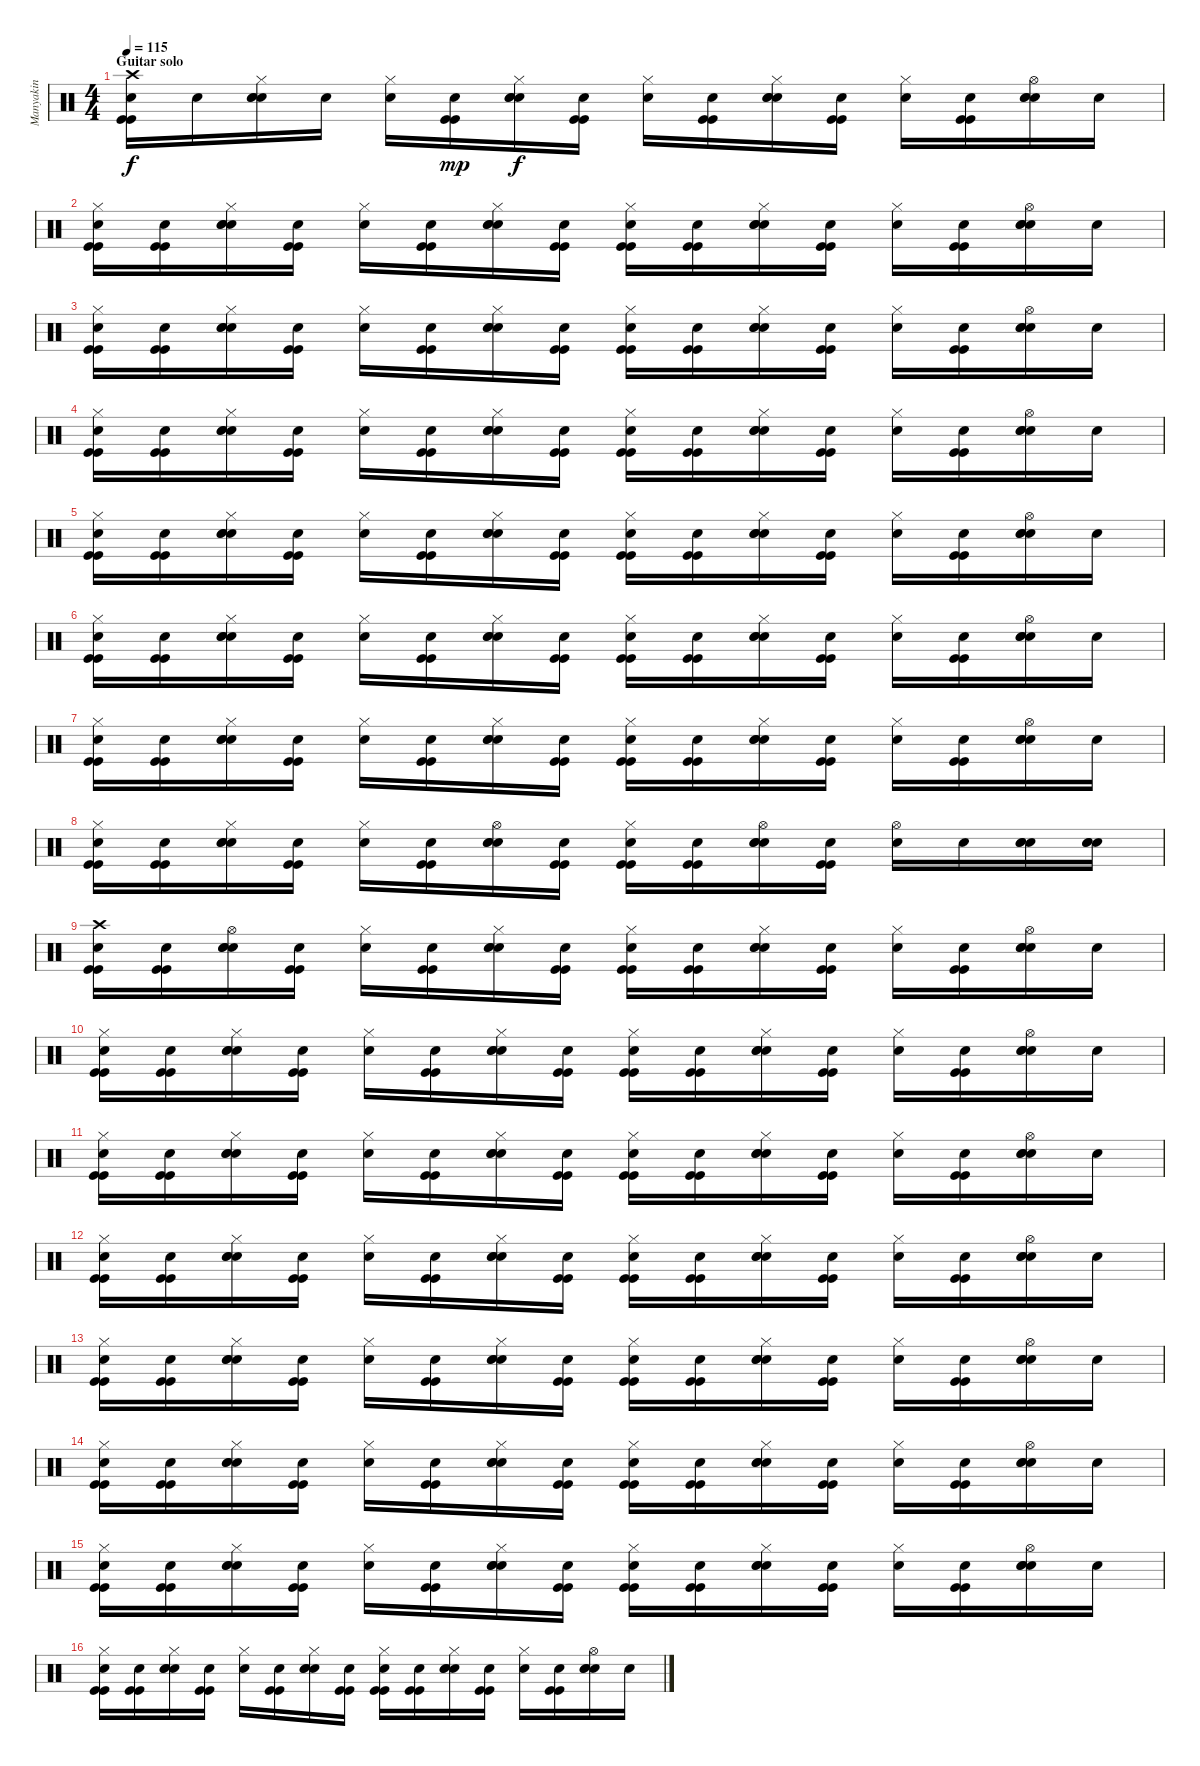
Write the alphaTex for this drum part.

\track ("Manyakin" "Manyakin") {instrument percussion}
\staff {score}
\articulation defaults
\ts (4 4)
\section ("" "Guitar solo")
\tempo 115
\clef neutral
\ks c
("Crash high (hit)" "Kick (hit)" "Kick (hit)" "Snare (hit)"{x}).16{dy f} "Snare (hit)"{x}.16 ("Hi-Hat (closed)" "Electric Snare (hit)" "Electric Snare (hit)" "Snare (hit)"{x}).16 "Snare (hit)"{x}.16 ("Hi-Hat (closed)" "Snare (hit)"{x}).16 ("Kick (hit)" "Kick (hit)" "Snare (hit)"{x}).16{dy mp} ("Hi-Hat (closed)" "Electric Snare (hit)" "Electric Snare (hit)" "Snare (hit)"{x}).16{dy f} ("Kick (hit)" "Kick (hit)" "Snare (hit)"{x}).16 ("Hi-Hat (closed)" "Snare (hit)"{x}).16 ("Kick (hit)" "Kick (hit)" "Snare (hit)"{x}).16 ("Hi-Hat (closed)" "Electric Snare (hit)" "Electric Snare (hit)" "Snare (hit)"{x}).16 ("Kick (hit)" "Kick (hit)" "Snare (hit)"{x}).16 ("Hi-Hat (closed)" "Snare (hit)"{x}).16 ("Kick (hit)" "Kick (hit)" "Snare (hit)"{x}).16 ("Hi-Hat (open)" "Electric Snare (hit)" "Electric Snare (hit)" "Snare (hit)"{x}).16 "Snare (hit)"{x}.16 |
("Hi-Hat (closed)" "Kick (hit)" "Kick (hit)" "Snare (hit)"{x}).16 ("Kick (hit)" "Kick (hit)" "Snare (hit)"{x}).16 ("Hi-Hat (closed)" "Electric Snare (hit)" "Electric Snare (hit)" "Snare (hit)"{x}).16 ("Kick (hit)" "Kick (hit)" "Snare (hit)"{x}).16 ("Hi-Hat (closed)" "Snare (hit)"{x}).16 ("Kick (hit)" "Kick (hit)" "Snare (hit)"{x}).16 ("Hi-Hat (closed)" "Electric Snare (hit)" "Electric Snare (hit)" "Snare (hit)"{x}).16 ("Kick (hit)" "Kick (hit)" "Snare (hit)"{x}).16 ("Hi-Hat (closed)" "Kick (hit)" "Kick (hit)" "Snare (hit)"{x}).16 ("Kick (hit)" "Kick (hit)" "Snare (hit)"{x}).16 ("Hi-Hat (closed)" "Electric Snare (hit)" "Electric Snare (hit)" "Snare (hit)"{x}).16 ("Kick (hit)" "Kick (hit)" "Snare (hit)"{x}).16 ("Hi-Hat (closed)" "Snare (hit)"{x}).16 ("Kick (hit)" "Kick (hit)" "Snare (hit)"{x}).16 ("Hi-Hat (open)" "Electric Snare (hit)" "Electric Snare (hit)" "Snare (hit)"{x}).16 "Snare (hit)"{x}.16 |
("Hi-Hat (closed)" "Kick (hit)" "Kick (hit)" "Snare (hit)"{x}).16 ("Kick (hit)" "Kick (hit)" "Snare (hit)"{x}).16 ("Hi-Hat (closed)" "Electric Snare (hit)" "Electric Snare (hit)" "Snare (hit)"{x}).16 ("Kick (hit)" "Kick (hit)" "Snare (hit)"{x}).16 ("Hi-Hat (closed)" "Snare (hit)"{x}).16 ("Kick (hit)" "Kick (hit)" "Snare (hit)"{x}).16 ("Hi-Hat (closed)" "Electric Snare (hit)" "Electric Snare (hit)" "Snare (hit)"{x}).16 ("Kick (hit)" "Kick (hit)" "Snare (hit)"{x}).16 ("Hi-Hat (closed)" "Kick (hit)" "Kick (hit)" "Snare (hit)"{x}).16 ("Kick (hit)" "Kick (hit)" "Snare (hit)"{x}).16 ("Hi-Hat (closed)" "Electric Snare (hit)" "Electric Snare (hit)" "Snare (hit)"{x}).16 ("Kick (hit)" "Kick (hit)" "Snare (hit)"{x}).16 ("Hi-Hat (closed)" "Snare (hit)"{x}).16 ("Kick (hit)" "Kick (hit)" "Snare (hit)"{x}).16 ("Hi-Hat (open)" "Electric Snare (hit)" "Electric Snare (hit)" "Snare (hit)"{x}).16 "Snare (hit)"{x}.16 |
("Hi-Hat (closed)" "Kick (hit)" "Kick (hit)" "Snare (hit)"{x}).16 ("Kick (hit)" "Kick (hit)" "Snare (hit)"{x}).16 ("Hi-Hat (closed)" "Electric Snare (hit)" "Electric Snare (hit)" "Snare (hit)"{x}).16 ("Kick (hit)" "Kick (hit)" "Snare (hit)"{x}).16 ("Hi-Hat (closed)" "Snare (hit)"{x}).16 ("Kick (hit)" "Kick (hit)" "Snare (hit)"{x}).16 ("Hi-Hat (closed)" "Electric Snare (hit)" "Electric Snare (hit)" "Snare (hit)"{x}).16 ("Kick (hit)" "Kick (hit)" "Snare (hit)"{x}).16 ("Hi-Hat (closed)" "Kick (hit)" "Kick (hit)" "Snare (hit)"{x}).16 ("Kick (hit)" "Kick (hit)" "Snare (hit)"{x}).16 ("Hi-Hat (closed)" "Electric Snare (hit)" "Electric Snare (hit)" "Snare (hit)"{x}).16 ("Kick (hit)" "Kick (hit)" "Snare (hit)"{x}).16 ("Hi-Hat (closed)" "Snare (hit)"{x}).16 ("Kick (hit)" "Kick (hit)" "Snare (hit)"{x}).16 ("Hi-Hat (open)" "Electric Snare (hit)" "Electric Snare (hit)" "Snare (hit)"{x}).16 "Snare (hit)"{x}.16 |
("Hi-Hat (closed)" "Kick (hit)" "Kick (hit)" "Snare (hit)"{x}).16 ("Kick (hit)" "Kick (hit)" "Snare (hit)"{x}).16 ("Hi-Hat (closed)" "Electric Snare (hit)" "Electric Snare (hit)" "Snare (hit)"{x}).16 ("Kick (hit)" "Kick (hit)" "Snare (hit)"{x}).16 ("Hi-Hat (closed)" "Snare (hit)"{x}).16 ("Kick (hit)" "Kick (hit)" "Snare (hit)"{x}).16 ("Hi-Hat (closed)" "Electric Snare (hit)" "Electric Snare (hit)" "Snare (hit)"{x}).16 ("Kick (hit)" "Kick (hit)" "Snare (hit)"{x}).16 ("Hi-Hat (closed)" "Kick (hit)" "Kick (hit)" "Snare (hit)"{x}).16 ("Kick (hit)" "Kick (hit)" "Snare (hit)"{x}).16 ("Hi-Hat (closed)" "Electric Snare (hit)" "Electric Snare (hit)" "Snare (hit)"{x}).16 ("Kick (hit)" "Kick (hit)" "Snare (hit)"{x}).16 ("Hi-Hat (closed)" "Snare (hit)"{x}).16 ("Kick (hit)" "Kick (hit)" "Snare (hit)"{x}).16 ("Hi-Hat (open)" "Electric Snare (hit)" "Electric Snare (hit)" "Snare (hit)"{x}).16 "Snare (hit)"{x}.16 |
("Hi-Hat (closed)" "Kick (hit)" "Kick (hit)" "Snare (hit)"{x}).16 ("Kick (hit)" "Kick (hit)" "Snare (hit)"{x}).16 ("Hi-Hat (closed)" "Electric Snare (hit)" "Electric Snare (hit)" "Snare (hit)"{x}).16 ("Kick (hit)" "Kick (hit)" "Snare (hit)"{x}).16 ("Hi-Hat (closed)" "Snare (hit)"{x}).16 ("Kick (hit)" "Kick (hit)" "Snare (hit)"{x}).16 ("Hi-Hat (closed)" "Electric Snare (hit)" "Electric Snare (hit)" "Snare (hit)"{x}).16 ("Kick (hit)" "Kick (hit)" "Snare (hit)"{x}).16 ("Hi-Hat (closed)" "Kick (hit)" "Kick (hit)" "Snare (hit)"{x}).16 ("Kick (hit)" "Kick (hit)" "Snare (hit)"{x}).16 ("Hi-Hat (closed)" "Electric Snare (hit)" "Electric Snare (hit)" "Snare (hit)"{x}).16 ("Kick (hit)" "Kick (hit)" "Snare (hit)"{x}).16 ("Hi-Hat (closed)" "Snare (hit)"{x}).16 ("Kick (hit)" "Kick (hit)" "Snare (hit)"{x}).16 ("Hi-Hat (open)" "Electric Snare (hit)" "Electric Snare (hit)" "Snare (hit)"{x}).16 "Snare (hit)"{x}.16 |
("Hi-Hat (closed)" "Kick (hit)" "Kick (hit)" "Snare (hit)"{x}).16 ("Kick (hit)" "Kick (hit)" "Snare (hit)"{x}).16 ("Hi-Hat (closed)" "Electric Snare (hit)" "Electric Snare (hit)" "Snare (hit)"{x}).16 ("Kick (hit)" "Kick (hit)" "Snare (hit)"{x}).16 ("Hi-Hat (closed)" "Snare (hit)"{x}).16 ("Kick (hit)" "Kick (hit)" "Snare (hit)"{x}).16 ("Hi-Hat (closed)" "Electric Snare (hit)" "Electric Snare (hit)" "Snare (hit)"{x}).16 ("Kick (hit)" "Kick (hit)" "Snare (hit)"{x}).16 ("Hi-Hat (closed)" "Kick (hit)" "Kick (hit)" "Snare (hit)"{x}).16 ("Kick (hit)" "Kick (hit)" "Snare (hit)"{x}).16 ("Hi-Hat (closed)" "Electric Snare (hit)" "Electric Snare (hit)" "Snare (hit)"{x}).16 ("Kick (hit)" "Kick (hit)" "Snare (hit)"{x}).16 ("Hi-Hat (closed)" "Snare (hit)"{x}).16 ("Kick (hit)" "Kick (hit)" "Snare (hit)"{x}).16 ("Hi-Hat (open)" "Electric Snare (hit)" "Electric Snare (hit)" "Snare (hit)"{x}).16 "Snare (hit)"{x}.16 |
("Hi-Hat (closed)" "Kick (hit)" "Kick (hit)" "Snare (hit)"{x}).16 ("Kick (hit)" "Kick (hit)" "Snare (hit)"{x}).16 ("Hi-Hat (closed)" "Electric Snare (hit)" "Electric Snare (hit)" "Snare (hit)"{x}).16 ("Kick (hit)" "Kick (hit)" "Snare (hit)"{x}).16 ("Hi-Hat (closed)" "Snare (hit)"{x}).16 ("Kick (hit)" "Kick (hit)" "Snare (hit)"{x}).16 ("Hi-Hat (open)" "Electric Snare (hit)" "Electric Snare (hit)" "Snare (hit)"{x}).16 ("Kick (hit)" "Kick (hit)" "Snare (hit)"{x}).16 ("Hi-Hat (closed)" "Kick (hit)" "Kick (hit)" "Snare (hit)"{x}).16 ("Kick (hit)" "Kick (hit)" "Snare (hit)"{x}).16 ("Hi-Hat (open)" "Electric Snare (hit)" "Electric Snare (hit)" "Snare (hit)"{x}).16 ("Kick (hit)" "Kick (hit)" "Snare (hit)"{x}).16 ("Hi-Hat (open)" "Snare (hit)"{x}).16 "Snare (hit)"{x}.16 ("Electric Snare (hit)" "Electric Snare (hit)" "Snare (hit)"{x}).16 ("Electric Snare (hit)" "Electric Snare (hit)" "Snare (hit)"{x}).16 |
("Crash high (hit)" "Kick (hit)" "Kick (hit)" "Snare (hit)"{x}).16 ("Kick (hit)" "Kick (hit)" "Snare (hit)"{x}).16 ("Hi-Hat (open)" "Electric Snare (hit)" "Electric Snare (hit)" "Snare (hit)"{x}).16 ("Kick (hit)" "Kick (hit)" "Snare (hit)"{x}).16 ("Hi-Hat (closed)" "Snare (hit)"{x}).16 ("Kick (hit)" "Kick (hit)" "Snare (hit)"{x}).16 ("Hi-Hat (closed)" "Electric Snare (hit)" "Electric Snare (hit)" "Snare (hit)"{x}).16 ("Kick (hit)" "Kick (hit)" "Snare (hit)"{x}).16 ("Hi-Hat (closed)" "Kick (hit)" "Kick (hit)" "Snare (hit)"{x}).16 ("Kick (hit)" "Kick (hit)" "Snare (hit)"{x}).16 ("Hi-Hat (closed)" "Electric Snare (hit)" "Electric Snare (hit)" "Snare (hit)"{x}).16 ("Kick (hit)" "Kick (hit)" "Snare (hit)"{x}).16 ("Hi-Hat (closed)" "Snare (hit)"{x}).16 ("Kick (hit)" "Kick (hit)" "Snare (hit)"{x}).16 ("Hi-Hat (open)" "Electric Snare (hit)" "Electric Snare (hit)" "Snare (hit)"{x}).16 "Snare (hit)"{x}.16 |
("Hi-Hat (closed)" "Kick (hit)" "Kick (hit)" "Snare (hit)"{x}).16 ("Kick (hit)" "Kick (hit)" "Snare (hit)"{x}).16 ("Hi-Hat (closed)" "Electric Snare (hit)" "Electric Snare (hit)" "Snare (hit)"{x}).16 ("Kick (hit)" "Kick (hit)" "Snare (hit)"{x}).16 ("Hi-Hat (closed)" "Snare (hit)"{x}).16 ("Kick (hit)" "Kick (hit)" "Snare (hit)"{x}).16 ("Hi-Hat (closed)" "Electric Snare (hit)" "Electric Snare (hit)" "Snare (hit)"{x}).16 ("Kick (hit)" "Kick (hit)" "Snare (hit)"{x}).16 ("Hi-Hat (closed)" "Kick (hit)" "Kick (hit)" "Snare (hit)"{x}).16 ("Kick (hit)" "Kick (hit)" "Snare (hit)"{x}).16 ("Hi-Hat (closed)" "Electric Snare (hit)" "Electric Snare (hit)" "Snare (hit)"{x}).16 ("Kick (hit)" "Kick (hit)" "Snare (hit)"{x}).16 ("Hi-Hat (closed)" "Snare (hit)"{x}).16 ("Kick (hit)" "Kick (hit)" "Snare (hit)"{x}).16 ("Hi-Hat (open)" "Electric Snare (hit)" "Electric Snare (hit)" "Snare (hit)"{x}).16 "Snare (hit)"{x}.16 |
("Hi-Hat (closed)" "Kick (hit)" "Kick (hit)" "Snare (hit)"{x}).16 ("Kick (hit)" "Kick (hit)" "Snare (hit)"{x}).16 ("Hi-Hat (closed)" "Electric Snare (hit)" "Electric Snare (hit)" "Snare (hit)"{x}).16 ("Kick (hit)" "Kick (hit)" "Snare (hit)"{x}).16 ("Hi-Hat (closed)" "Snare (hit)"{x}).16 ("Kick (hit)" "Kick (hit)" "Snare (hit)"{x}).16 ("Hi-Hat (closed)" "Electric Snare (hit)" "Electric Snare (hit)" "Snare (hit)"{x}).16 ("Kick (hit)" "Kick (hit)" "Snare (hit)"{x}).16 ("Hi-Hat (closed)" "Kick (hit)" "Kick (hit)" "Snare (hit)"{x}).16 ("Kick (hit)" "Kick (hit)" "Snare (hit)"{x}).16 ("Hi-Hat (closed)" "Electric Snare (hit)" "Electric Snare (hit)" "Snare (hit)"{x}).16 ("Kick (hit)" "Kick (hit)" "Snare (hit)"{x}).16 ("Hi-Hat (closed)" "Snare (hit)"{x}).16 ("Kick (hit)" "Kick (hit)" "Snare (hit)"{x}).16 ("Hi-Hat (open)" "Electric Snare (hit)" "Electric Snare (hit)" "Snare (hit)"{x}).16 "Snare (hit)"{x}.16 |
("Hi-Hat (closed)" "Kick (hit)" "Kick (hit)" "Snare (hit)"{x}).16 ("Kick (hit)" "Kick (hit)" "Snare (hit)"{x}).16 ("Hi-Hat (closed)" "Electric Snare (hit)" "Electric Snare (hit)" "Snare (hit)"{x}).16 ("Kick (hit)" "Kick (hit)" "Snare (hit)"{x}).16 ("Hi-Hat (closed)" "Snare (hit)"{x}).16 ("Kick (hit)" "Kick (hit)" "Snare (hit)"{x}).16 ("Hi-Hat (closed)" "Electric Snare (hit)" "Electric Snare (hit)" "Snare (hit)"{x}).16 ("Kick (hit)" "Kick (hit)" "Snare (hit)"{x}).16 ("Hi-Hat (closed)" "Kick (hit)" "Kick (hit)" "Snare (hit)"{x}).16 ("Kick (hit)" "Kick (hit)" "Snare (hit)"{x}).16 ("Hi-Hat (closed)" "Electric Snare (hit)" "Electric Snare (hit)" "Snare (hit)"{x}).16 ("Kick (hit)" "Kick (hit)" "Snare (hit)"{x}).16 ("Hi-Hat (closed)" "Snare (hit)"{x}).16 ("Kick (hit)" "Kick (hit)" "Snare (hit)"{x}).16 ("Hi-Hat (open)" "Electric Snare (hit)" "Electric Snare (hit)" "Snare (hit)"{x}).16 "Snare (hit)"{x}.16 |
("Hi-Hat (closed)" "Kick (hit)" "Kick (hit)" "Snare (hit)"{x}).16 ("Kick (hit)" "Kick (hit)" "Snare (hit)"{x}).16 ("Hi-Hat (closed)" "Electric Snare (hit)" "Electric Snare (hit)" "Snare (hit)"{x}).16 ("Kick (hit)" "Kick (hit)" "Snare (hit)"{x}).16 ("Hi-Hat (closed)" "Snare (hit)"{x}).16 ("Kick (hit)" "Kick (hit)" "Snare (hit)"{x}).16 ("Hi-Hat (closed)" "Electric Snare (hit)" "Electric Snare (hit)" "Snare (hit)"{x}).16 ("Kick (hit)" "Kick (hit)" "Snare (hit)"{x}).16 ("Hi-Hat (closed)" "Kick (hit)" "Kick (hit)" "Snare (hit)"{x}).16 ("Kick (hit)" "Kick (hit)" "Snare (hit)"{x}).16 ("Hi-Hat (closed)" "Electric Snare (hit)" "Electric Snare (hit)" "Snare (hit)"{x}).16 ("Kick (hit)" "Kick (hit)" "Snare (hit)"{x}).16 ("Hi-Hat (closed)" "Snare (hit)"{x}).16 ("Kick (hit)" "Kick (hit)" "Snare (hit)"{x}).16 ("Hi-Hat (open)" "Electric Snare (hit)" "Electric Snare (hit)" "Snare (hit)"{x}).16 "Snare (hit)"{x}.16 |
("Hi-Hat (closed)" "Kick (hit)" "Kick (hit)" "Snare (hit)"{x}).16 ("Kick (hit)" "Kick (hit)" "Snare (hit)"{x}).16 ("Hi-Hat (closed)" "Electric Snare (hit)" "Electric Snare (hit)" "Snare (hit)"{x}).16 ("Kick (hit)" "Kick (hit)" "Snare (hit)"{x}).16 ("Hi-Hat (closed)" "Snare (hit)"{x}).16 ("Kick (hit)" "Kick (hit)" "Snare (hit)"{x}).16 ("Hi-Hat (closed)" "Electric Snare (hit)" "Electric Snare (hit)" "Snare (hit)"{x}).16 ("Kick (hit)" "Kick (hit)" "Snare (hit)"{x}).16 ("Hi-Hat (closed)" "Kick (hit)" "Kick (hit)" "Snare (hit)"{x}).16 ("Kick (hit)" "Kick (hit)" "Snare (hit)"{x}).16 ("Hi-Hat (closed)" "Electric Snare (hit)" "Electric Snare (hit)" "Snare (hit)"{x}).16 ("Kick (hit)" "Kick (hit)" "Snare (hit)"{x}).16 ("Hi-Hat (closed)" "Snare (hit)"{x}).16 ("Kick (hit)" "Kick (hit)" "Snare (hit)"{x}).16 ("Hi-Hat (open)" "Electric Snare (hit)" "Electric Snare (hit)" "Snare (hit)"{x}).16 "Snare (hit)"{x}.16 |
("Hi-Hat (closed)" "Kick (hit)" "Kick (hit)" "Snare (hit)"{x}).16 ("Kick (hit)" "Kick (hit)" "Snare (hit)"{x}).16 ("Hi-Hat (closed)" "Electric Snare (hit)" "Electric Snare (hit)" "Snare (hit)"{x}).16 ("Kick (hit)" "Kick (hit)" "Snare (hit)"{x}).16 ("Hi-Hat (closed)" "Snare (hit)"{x}).16 ("Kick (hit)" "Kick (hit)" "Snare (hit)"{x}).16 ("Hi-Hat (closed)" "Electric Snare (hit)" "Electric Snare (hit)" "Snare (hit)"{x}).16 ("Kick (hit)" "Kick (hit)" "Snare (hit)"{x}).16 ("Hi-Hat (closed)" "Kick (hit)" "Kick (hit)" "Snare (hit)"{x}).16 ("Kick (hit)" "Kick (hit)" "Snare (hit)"{x}).16 ("Hi-Hat (closed)" "Electric Snare (hit)" "Electric Snare (hit)" "Snare (hit)"{x}).16 ("Kick (hit)" "Kick (hit)" "Snare (hit)"{x}).16 ("Hi-Hat (closed)" "Snare (hit)"{x}).16 ("Kick (hit)" "Kick (hit)" "Snare (hit)"{x}).16 ("Hi-Hat (open)" "Electric Snare (hit)" "Electric Snare (hit)" "Snare (hit)"{x}).16 "Snare (hit)"{x}.16 |
("Hi-Hat (closed)" "Kick (hit)" "Kick (hit)" "Snare (hit)"{x}).16 ("Kick (hit)" "Kick (hit)" "Snare (hit)"{x}).16 ("Hi-Hat (closed)" "Electric Snare (hit)" "Electric Snare (hit)" "Snare (hit)"{x}).16 ("Kick (hit)" "Kick (hit)" "Snare (hit)"{x}).16 ("Hi-Hat (closed)" "Snare (hit)"{x}).16 ("Kick (hit)" "Kick (hit)" "Snare (hit)"{x}).16 ("Hi-Hat (closed)" "Electric Snare (hit)" "Electric Snare (hit)" "Snare (hit)"{x}).16 ("Kick (hit)" "Kick (hit)" "Snare (hit)"{x}).16 ("Hi-Hat (closed)" "Kick (hit)" "Kick (hit)" "Snare (hit)"{x}).16 ("Kick (hit)" "Kick (hit)" "Snare (hit)"{x}).16 ("Hi-Hat (closed)" "Electric Snare (hit)" "Electric Snare (hit)" "Snare (hit)"{x}).16 ("Kick (hit)" "Kick (hit)" "Snare (hit)"{x}).16 ("Hi-Hat (closed)" "Snare (hit)"{x}).16 ("Kick (hit)" "Kick (hit)" "Snare (hit)"{x}).16 ("Hi-Hat (open)" "Electric Snare (hit)" "Electric Snare (hit)" "Snare (hit)"{x}).16 "Snare (hit)"{x}.16
